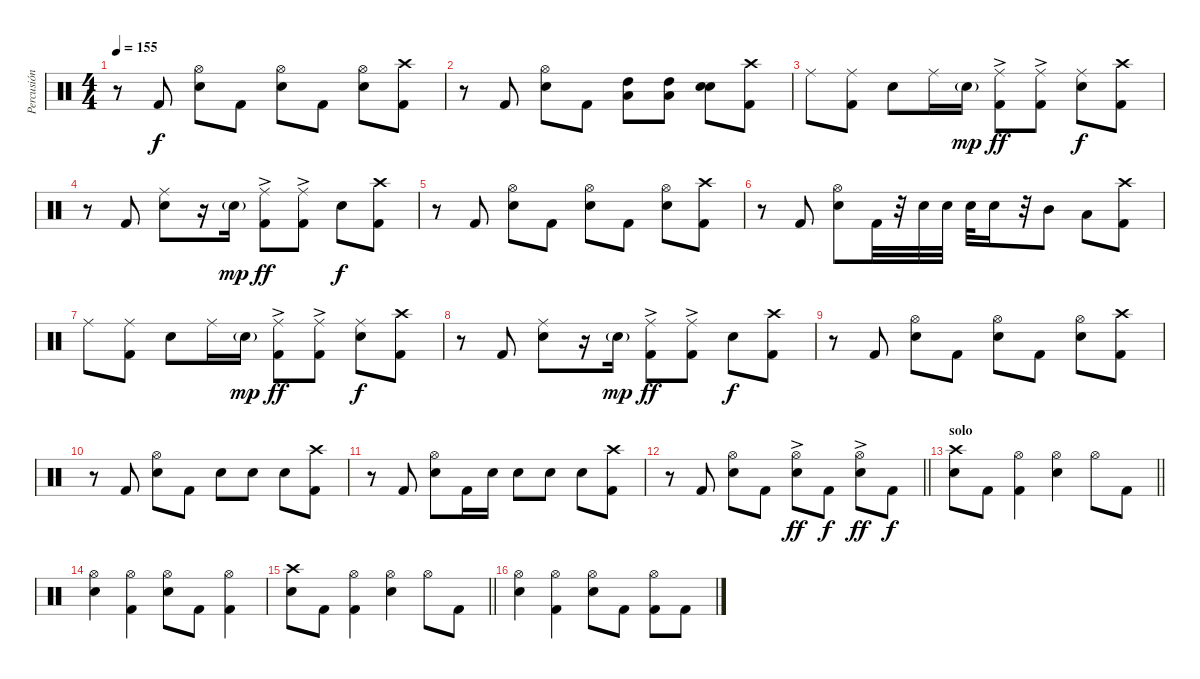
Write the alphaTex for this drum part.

\track ("Percusión" "Percusión") {instrument percussion}
\staff {score}
\articulation defaults
\ts (4 4)
\tempo 155
\clef neutral
\ks c
r.8{dy f} "Kick (hit) 2".8 ("Hi-Hat (open)" "Snare (hit) 2").8 "Kick (hit) 2".8 ("Hi-Hat (open)" "Snare (hit) 2").8 "Kick (hit) 2".8 ("Hi-Hat (open)" "Snare (hit) 2").8 ("Crash high (hit)" "Kick (hit) 2").8 |
r.8 "Kick (hit) 2".8 ("Hi-Hat (open)" "Snare (hit) 2").8 "Kick (hit) 2".8 ("High Tom (hit)" "Low Tom (hit)").8 ("High Tom (hit)" "Low Tom (hit)").8 ("Snare (hit) 2" "Snare (hit) 2").8 ("Crash high (hit)" "Kick (hit) 2").8 |
"Ride (middle)".8 ("Ride (middle)" "Kick (hit) 2").8 "Snare (hit) 2".8 "Ride (middle)".16 "Snare (hit) 2"{g}.16{dy mp} ("Ride (middle)"{ac} "Kick (hit) 2").8{dy ff} ("Ride (middle)"{ac} "Kick (hit) 2").8 ("Ride (middle)" "Snare (hit) 2").8{dy f} ("Crash high (hit)" "Kick (hit) 2").8 |
r.8 "Kick (hit) 2".8 ("Ride (middle)" "Snare (hit) 2").8 r.16 "Snare (hit) 2"{g}.16{dy mp} ("Ride (middle)"{ac} "Kick (hit) 2").8{dy ff} ("Ride (middle)"{ac} "Kick (hit) 2").8 "Snare (hit) 2".8{dy f} ("Crash high (hit)" "Kick (hit) 2").8 |
r.8 "Kick (hit) 2".8 ("Hi-Hat (open)" "Snare (hit) 2").8 "Kick (hit) 2".8 ("Hi-Hat (open)" "Snare (hit) 2").8 "Kick (hit) 2".8 ("Hi-Hat (open)" "Snare (hit) 2").8 ("Crash high (hit)" "Kick (hit) 2").8 |
r.8 "Kick (hit) 2".8 ("Hi-Hat (open)" "Snare (hit) 2").8 "Kick (hit) 2".32 r.32 "Snare (hit) 2".32 "Snare (hit) 2".32 "Snare (hit) 2".32 "Snare (hit) 2".16 r.32 "Mid Tom (hit)".8 "Low Tom (hit)".8 ("Crash high (hit)" "Kick (hit) 2").8 |
"Ride (middle)".8 ("Ride (middle)" "Kick (hit) 2").8 "Snare (hit) 2".8 "Ride (middle)".16 "Snare (hit) 2"{g}.16{dy mp} ("Ride (middle)"{ac} "Kick (hit) 2").8{dy ff} ("Ride (middle)"{ac} "Kick (hit) 2").8 ("Ride (middle)" "Snare (hit) 2").8{dy f} ("Crash high (hit)" "Kick (hit) 2").8 |
r.8 "Kick (hit) 2".8 ("Ride (middle)" "Snare (hit) 2").8 r.16 "Snare (hit) 2"{g}.16{dy mp} ("Ride (middle)"{ac} "Kick (hit) 2").8{dy ff} ("Ride (middle)"{ac} "Kick (hit) 2").8 "Snare (hit) 2".8{dy f} ("Crash high (hit)" "Kick (hit) 2").8 |
r.8 "Kick (hit) 2".8 ("Hi-Hat (open)" "Snare (hit) 2").8 "Kick (hit) 2".8 ("Hi-Hat (open)" "Snare (hit) 2").8 "Kick (hit) 2".8 ("Hi-Hat (open)" "Snare (hit) 2").8 ("Crash high (hit)" "Kick (hit) 2").8 |
r.8 "Kick (hit) 2".8 ("Hi-Hat (open)" "Snare (hit) 2").8 "Kick (hit) 2".8 "Snare (hit) 2".8 "Snare (hit) 2".8 "Snare (hit) 2".8 ("Crash high (hit)" "Kick (hit) 2").8 |
r.8 "Kick (hit) 2".8 ("Hi-Hat (open)" "Snare (hit) 2").8 "Kick (hit) 2".16 "Snare (hit) 2".16 "Snare (hit) 2".8 "Snare (hit) 2".8 "Snare (hit) 2".8 ("Crash high (hit)" "Kick (hit) 2").8 |
\barLineRight lightlight
r.8 "Kick (hit) 2".8 ("Hi-Hat (open)" "Snare (hit) 2").8 "Kick (hit) 2".8 ("Hi-Hat (open)" "Snare (hit) 2"{ac}).8{dy ff} "Kick (hit) 2".8{dy f} ("Hi-Hat (open)" "Snare (hit) 2"{ac}).8{dy ff} "Kick (hit) 2".8{dy f} |
\section ("" "solo")
\barLineRight lightlight
("Crash high (hit)" "Snare (hit) 2").8 "Kick (hit) 2".8 ("Hi-Hat (open)" "Kick (hit) 2").4 ("Hi-Hat (open)" "Snare (hit) 2").4 "Hi-Hat (open)".8 "Kick (hit) 2".8 |
("Hi-Hat (open)" "Snare (hit) 2").4 ("Hi-Hat (open)" "Kick (hit) 2").4 ("Hi-Hat (open)" "Snare (hit) 2").8 "Kick (hit) 2".8 ("Hi-Hat (open)" "Kick (hit) 2").4 |
\barLineRight lightlight
("Crash high (hit)" "Snare (hit) 2").8 "Kick (hit) 2".8 ("Hi-Hat (open)" "Kick (hit) 2").4 ("Hi-Hat (open)" "Snare (hit) 2").4 "Hi-Hat (open)".8 "Kick (hit) 2".8 |
("Hi-Hat (open)" "Snare (hit) 2").4 ("Hi-Hat (open)" "Kick (hit) 2").4 ("Hi-Hat (open)" "Snare (hit) 2").8 "Kick (hit) 2".8 ("Hi-Hat (open)" "Kick (hit) 2").8 "Kick (hit) 2".8
